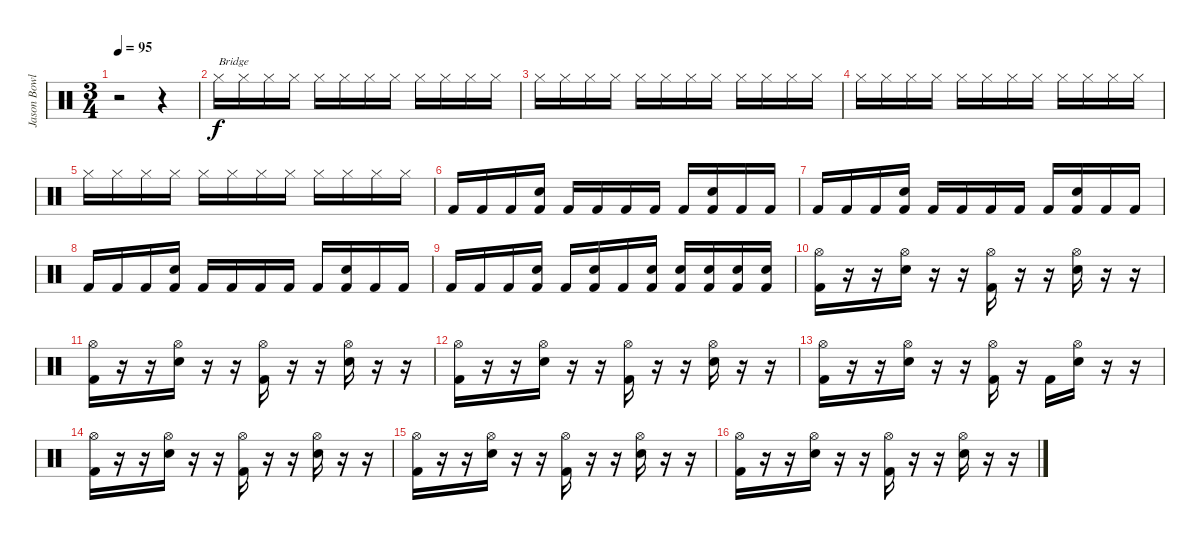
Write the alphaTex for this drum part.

\track ("Jason Bowld" "Jason Bowl") {instrument percussion}
\staff {score}
\articulation defaults
\ts (3 4)
\tempo 95
\clef neutral
\ks c
r.2{dy f} r.4 |
"Hi-Hat (closed)".16{txt "Bridge"} "Hi-Hat (closed)".16 "Hi-Hat (closed)".16 "Hi-Hat (closed)".16 "Hi-Hat (closed)".16 "Hi-Hat (closed)".16 "Hi-Hat (closed)".16 "Hi-Hat (closed)".16 "Hi-Hat (closed)".16 "Hi-Hat (closed)".16 "Hi-Hat (closed)".16 "Hi-Hat (closed)".16 |
"Hi-Hat (closed)".16 "Hi-Hat (closed)".16 "Hi-Hat (closed)".16 "Hi-Hat (closed)".16 "Hi-Hat (closed)".16 "Hi-Hat (closed)".16 "Hi-Hat (closed)".16 "Hi-Hat (closed)".16 "Hi-Hat (closed)".16 "Hi-Hat (closed)".16 "Hi-Hat (closed)".16 "Hi-Hat (closed)".16 |
"Hi-Hat (closed)".16 "Hi-Hat (closed)".16 "Hi-Hat (closed)".16 "Hi-Hat (closed)".16 "Hi-Hat (closed)".16 "Hi-Hat (closed)".16 "Hi-Hat (closed)".16 "Hi-Hat (closed)".16 "Hi-Hat (closed)".16 "Hi-Hat (closed)".16 "Hi-Hat (closed)".16 "Hi-Hat (closed)".16 |
"Hi-Hat (closed)".16 "Hi-Hat (closed)".16 "Hi-Hat (closed)".16 "Hi-Hat (closed)".16 "Hi-Hat (closed)".16 "Hi-Hat (closed)".16 "Hi-Hat (closed)".16 "Hi-Hat (closed)".16 "Hi-Hat (closed)".16 "Hi-Hat (closed)".16 "Hi-Hat (closed)".16 "Hi-Hat (closed)".16 |
"Kick (hit) 2".16 "Kick (hit) 2".16 "Kick (hit) 2".16 ("Kick (hit) 2" "Snare (hit) 2").16 "Kick (hit) 2".16 "Kick (hit) 2".16 "Kick (hit) 2".16 "Kick (hit) 2".16 "Kick (hit) 2".16 ("Kick (hit) 2" "Snare (hit) 2").16 "Kick (hit) 2".16 "Kick (hit) 2".16 |
"Kick (hit) 2".16 "Kick (hit) 2".16 "Kick (hit) 2".16 ("Kick (hit) 2" "Snare (hit) 2").16 "Kick (hit) 2".16 "Kick (hit) 2".16 "Kick (hit) 2".16 "Kick (hit) 2".16 "Kick (hit) 2".16 ("Kick (hit) 2" "Snare (hit) 2").16 "Kick (hit) 2".16 "Kick (hit) 2".16 |
"Kick (hit) 2".16 "Kick (hit) 2".16 "Kick (hit) 2".16 ("Kick (hit) 2" "Snare (hit) 2").16 "Kick (hit) 2".16 "Kick (hit) 2".16 "Kick (hit) 2".16 "Kick (hit) 2".16 "Kick (hit) 2".16 ("Kick (hit) 2" "Snare (hit) 2").16 "Kick (hit) 2".16 "Kick (hit) 2".16 |
"Kick (hit) 2".16 "Kick (hit) 2".16 "Kick (hit) 2".16 ("Kick (hit) 2" "Snare (hit) 2").16 "Kick (hit) 2".16 ("Kick (hit) 2" "Snare (hit) 2").16 "Kick (hit) 2".16 ("Kick (hit) 2" "Snare (hit) 2").16 ("Kick (hit) 2" "Snare (hit) 2").16 ("Kick (hit) 2" "Snare (hit) 2").16 ("Kick (hit) 2" "Snare (hit) 2").16 ("Kick (hit) 2" "Snare (hit) 2").16 |
("Hi-Hat (open)" "Kick (hit) 2").16 r.16 r.16 ("Hi-Hat (open)" "Snare (hit) 2").16 r.16 r.16 ("Hi-Hat (open)" "Kick (hit) 2").16 r.16 r.16 ("Hi-Hat (open)" "Snare (hit) 2").16 r.16 r.16 |
("Hi-Hat (open)" "Kick (hit) 2").16 r.16 r.16 ("Hi-Hat (open)" "Snare (hit) 2").16 r.16 r.16 ("Hi-Hat (open)" "Kick (hit) 2").16 r.16 r.16 ("Hi-Hat (open)" "Snare (hit) 2").16 r.16 r.16 |
("Hi-Hat (open)" "Kick (hit) 2").16 r.16 r.16 ("Hi-Hat (open)" "Snare (hit) 2").16 r.16 r.16 ("Hi-Hat (open)" "Kick (hit) 2").16 r.16 r.16 ("Hi-Hat (open)" "Snare (hit) 2").16 r.16 r.16 |
("Hi-Hat (open)" "Kick (hit) 2").16 r.16 r.16 ("Hi-Hat (open)" "Snare (hit) 2").16 r.16 r.16 ("Hi-Hat (open)" "Kick (hit) 2").16 r.16 "Kick (hit) 2".16 ("Hi-Hat (open)" "Snare (hit) 2").16 r.16 r.16 |
("Hi-Hat (open)" "Kick (hit) 2").16 r.16 r.16 ("Hi-Hat (open)" "Snare (hit) 2").16 r.16 r.16 ("Hi-Hat (open)" "Kick (hit) 2").16 r.16 r.16 ("Hi-Hat (open)" "Snare (hit) 2").16 r.16 r.16 |
("Hi-Hat (open)" "Kick (hit) 2").16 r.16 r.16 ("Hi-Hat (open)" "Snare (hit) 2").16 r.16 r.16 ("Hi-Hat (open)" "Kick (hit) 2").16 r.16 r.16 ("Hi-Hat (open)" "Snare (hit) 2").16 r.16 r.16 |
("Hi-Hat (open)" "Kick (hit) 2").16 r.16 r.16 ("Hi-Hat (open)" "Snare (hit) 2").16 r.16 r.16 ("Hi-Hat (open)" "Kick (hit) 2").16 r.16 r.16 ("Hi-Hat (open)" "Snare (hit) 2").16 r.16 r.16
